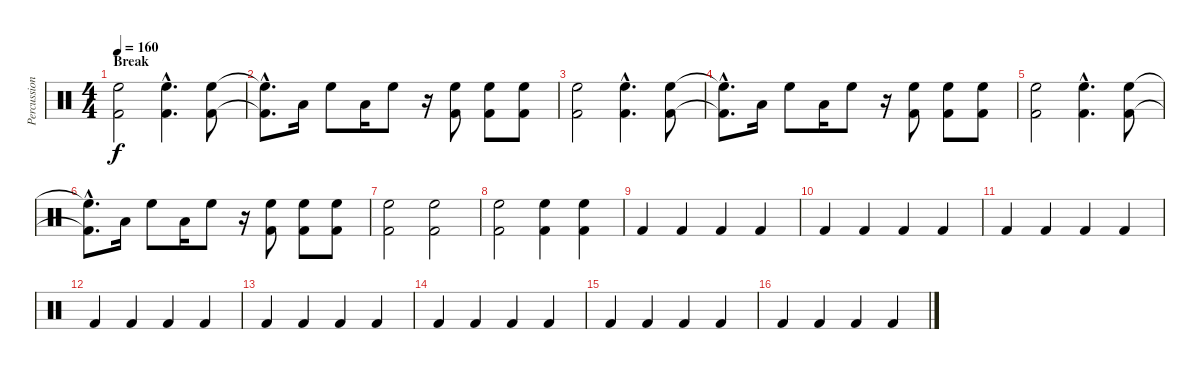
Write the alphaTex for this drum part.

\track ("Percussions" "Percussion") {instrument percussion}
\staff {score}
\articulation defaults
\ts (4 4)
\section ("" "Break")
\tempo 160
\clef neutral
\ks c
("High Floor Tom (hit)" "Kick (hit) 2").2{dy f} ("High Floor Tom (hit)"{hac} "Kick (hit) 2"{hac}).4{d} ("High Floor Tom (hit)" "Kick (hit) 2").8 |
("High Floor Tom (hit)"{hac t} "Kick (hit) 2"{hac t}).8{d} "Low Floor Tom (hit)".16 "High Floor Tom (hit)".8 "Low Floor Tom (hit)".16 "High Floor Tom (hit)".8 r.16 ("High Floor Tom (hit)" "Kick (hit) 2").8 ("High Floor Tom (hit)" "Kick (hit) 2").8 ("High Floor Tom (hit)" "Kick (hit) 2").8 |
("High Floor Tom (hit)" "Kick (hit) 2").2 ("High Floor Tom (hit)"{hac} "Kick (hit) 2"{hac}).4{d} ("High Floor Tom (hit)" "Kick (hit) 2").8 |
("High Floor Tom (hit)"{hac t} "Kick (hit) 2"{hac t}).8{d} "Low Floor Tom (hit)".16 "High Floor Tom (hit)".8 "Low Floor Tom (hit)".16 "High Floor Tom (hit)".8 r.16 ("High Floor Tom (hit)" "Kick (hit) 2").8 ("High Floor Tom (hit)" "Kick (hit) 2").8 ("High Floor Tom (hit)" "Kick (hit) 2").8 |
("High Floor Tom (hit)" "Kick (hit) 2").2 ("High Floor Tom (hit)"{hac} "Kick (hit) 2"{hac}).4{d} ("High Floor Tom (hit)" "Kick (hit) 2").8 |
("High Floor Tom (hit)"{hac t} "Kick (hit) 2"{hac t}).8{d} "Low Floor Tom (hit)".16 "High Floor Tom (hit)".8 "Low Floor Tom (hit)".16 "High Floor Tom (hit)".8 r.16 ("High Floor Tom (hit)" "Kick (hit) 2").8 ("High Floor Tom (hit)" "Kick (hit) 2").8 ("High Floor Tom (hit)" "Kick (hit) 2").8 |
("High Floor Tom (hit)" "Kick (hit) 2").2 ("High Floor Tom (hit)" "Kick (hit) 2").2 |
("High Floor Tom (hit)" "Kick (hit) 2").2 ("High Floor Tom (hit)" "Kick (hit) 2").4 ("High Floor Tom (hit)" "Kick (hit) 2").4 |
"Kick (hit) 2".4 "Kick (hit) 2".4 "Kick (hit) 2".4 "Kick (hit) 2".4 |
"Kick (hit) 2".4 "Kick (hit) 2".4 "Kick (hit) 2".4 "Kick (hit) 2".4 |
"Kick (hit) 2".4 "Kick (hit) 2".4 "Kick (hit) 2".4 "Kick (hit) 2".4 |
"Kick (hit) 2".4 "Kick (hit) 2".4 "Kick (hit) 2".4 "Kick (hit) 2".4 |
"Kick (hit) 2".4 "Kick (hit) 2".4 "Kick (hit) 2".4 "Kick (hit) 2".4 |
"Kick (hit) 2".4 "Kick (hit) 2".4 "Kick (hit) 2".4 "Kick (hit) 2".4 |
"Kick (hit) 2".4 "Kick (hit) 2".4 "Kick (hit) 2".4 "Kick (hit) 2".4 |
"Kick (hit) 2".4 "Kick (hit) 2".4 "Kick (hit) 2".4 "Kick (hit) 2".4
